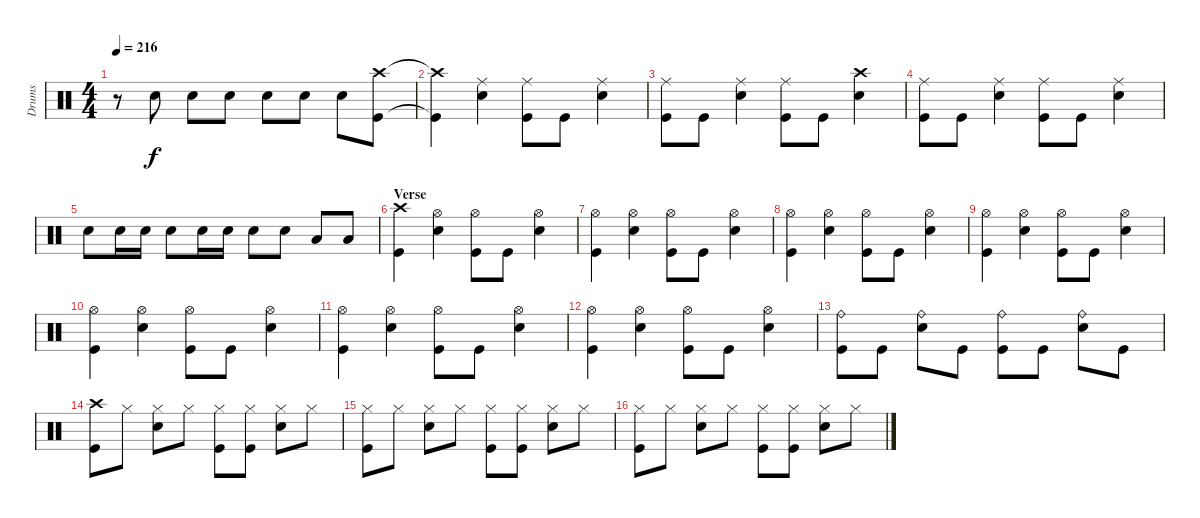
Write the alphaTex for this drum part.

\track ("Drums" "Drums") {instrument percussion}
\staff {score}
\articulation defaults
\ts (4 4)
\tempo 216
\clef neutral
\ks c
r.8{dy f} "Snare (hit) 2".8 "Snare (hit) 2".8 "Snare (hit) 2".8 "Snare (hit) 2".8 "Snare (hit) 2".8 "Snare (hit) 2".8 ("Crash high (hit)" "Kick (hit)").8 |
("Crash high (hit)"{t} "Kick (hit)"{t}).4 ("Ride (middle)" "Snare (hit) 2").4 ("Ride (middle)" "Kick (hit)").8 "Kick (hit)".8 ("Ride (middle)" "Snare (hit) 2").4 |
("Ride (middle)" "Kick (hit)").8 "Kick (hit)".8 ("Ride (middle)" "Snare (hit) 2").4 ("Ride (middle)" "Kick (hit)").8 "Kick (hit)".8 ("Crash high (hit)" "Snare (hit) 2").4 |
("Ride (middle)" "Kick (hit)").8 "Kick (hit)".8 ("Ride (middle)" "Snare (hit) 2").4 ("Ride (middle)" "Kick (hit)").8 "Kick (hit)".8 ("Ride (middle)" "Snare (hit) 2").4 |
"Snare (hit) 2".8 "Snare (hit) 2".16 "Snare (hit) 2".16 "Snare (hit) 2".8 "Snare (hit) 2".16 "Snare (hit) 2".16 "Snare (hit) 2".8 "Snare (hit) 2".8 "Low Tom (hit)".8 "Low Tom (hit)".8 |
\section ("" "Verse")
("Crash high (hit)" "Kick (hit)").4 ("Hi-Hat (open)" "Snare (hit) 2").4 ("Hi-Hat (open)" "Kick (hit)").8 "Kick (hit)".8 ("Hi-Hat (open)" "Snare (hit) 2").4 |
("Hi-Hat (open)" "Kick (hit)").4 ("Hi-Hat (open)" "Snare (hit) 2").4 ("Hi-Hat (open)" "Kick (hit)").8 "Kick (hit)".8 ("Hi-Hat (open)" "Snare (hit) 2").4 |
("Hi-Hat (open)" "Kick (hit)").4 ("Hi-Hat (open)" "Snare (hit) 2").4 ("Hi-Hat (open)" "Kick (hit)").8 "Kick (hit)".8 ("Hi-Hat (open)" "Snare (hit) 2").4 |
("Hi-Hat (open)" "Kick (hit)").4 ("Hi-Hat (open)" "Snare (hit) 2").4 ("Hi-Hat (open)" "Kick (hit)").8 "Kick (hit)".8 ("Hi-Hat (open)" "Snare (hit) 2").4 |
("Hi-Hat (open)" "Kick (hit)").4 ("Hi-Hat (open)" "Snare (hit) 2").4 ("Hi-Hat (open)" "Kick (hit)").8 "Kick (hit)".8 ("Hi-Hat (open)" "Snare (hit) 2").4 |
("Hi-Hat (open)" "Kick (hit)").4 ("Hi-Hat (open)" "Snare (hit) 2").4 ("Hi-Hat (open)" "Kick (hit)").8 "Kick (hit)".8 ("Hi-Hat (open)" "Snare (hit) 2").4 |
("Hi-Hat (open)" "Kick (hit)").4 ("Hi-Hat (open)" "Snare (hit) 2").4 ("Hi-Hat (open)" "Kick (hit)").8 "Kick (hit)".8 ("Hi-Hat (open)" "Snare (hit) 2").4 |
("Ride (bell)" "Kick (hit)").8 "Kick (hit)".8 ("Ride (bell)" "Snare (hit) 2").8 "Kick (hit)".8 ("Ride (bell)" "Kick (hit)").8 "Kick (hit)".8 ("Ride (bell)" "Snare (hit) 2").8 "Kick (hit)".8 |
("Crash high (hit)" "Kick (hit)").8 "Hi-Hat (closed)".8 ("Hi-Hat (closed)" "Snare (hit) 2").8 "Hi-Hat (closed)".8 ("Hi-Hat (closed)" "Kick (hit)").8 ("Hi-Hat (closed)" "Kick (hit)").8 ("Hi-Hat (closed)" "Snare (hit) 2").8 "Hi-Hat (closed)".8 |
("Hi-Hat (closed)" "Kick (hit)").8 "Hi-Hat (closed)".8 ("Hi-Hat (closed)" "Snare (hit) 2").8 "Hi-Hat (closed)".8 ("Hi-Hat (closed)" "Kick (hit)").8 ("Hi-Hat (closed)" "Kick (hit)").8 ("Hi-Hat (closed)" "Snare (hit) 2").8 "Hi-Hat (closed)".8 |
("Hi-Hat (closed)" "Kick (hit)").8 "Hi-Hat (closed)".8 ("Hi-Hat (closed)" "Snare (hit) 2").8 "Hi-Hat (closed)".8 ("Hi-Hat (closed)" "Kick (hit)").8 ("Hi-Hat (closed)" "Kick (hit)").8 ("Hi-Hat (closed)" "Snare (hit) 2").8 "Hi-Hat (closed)".8
